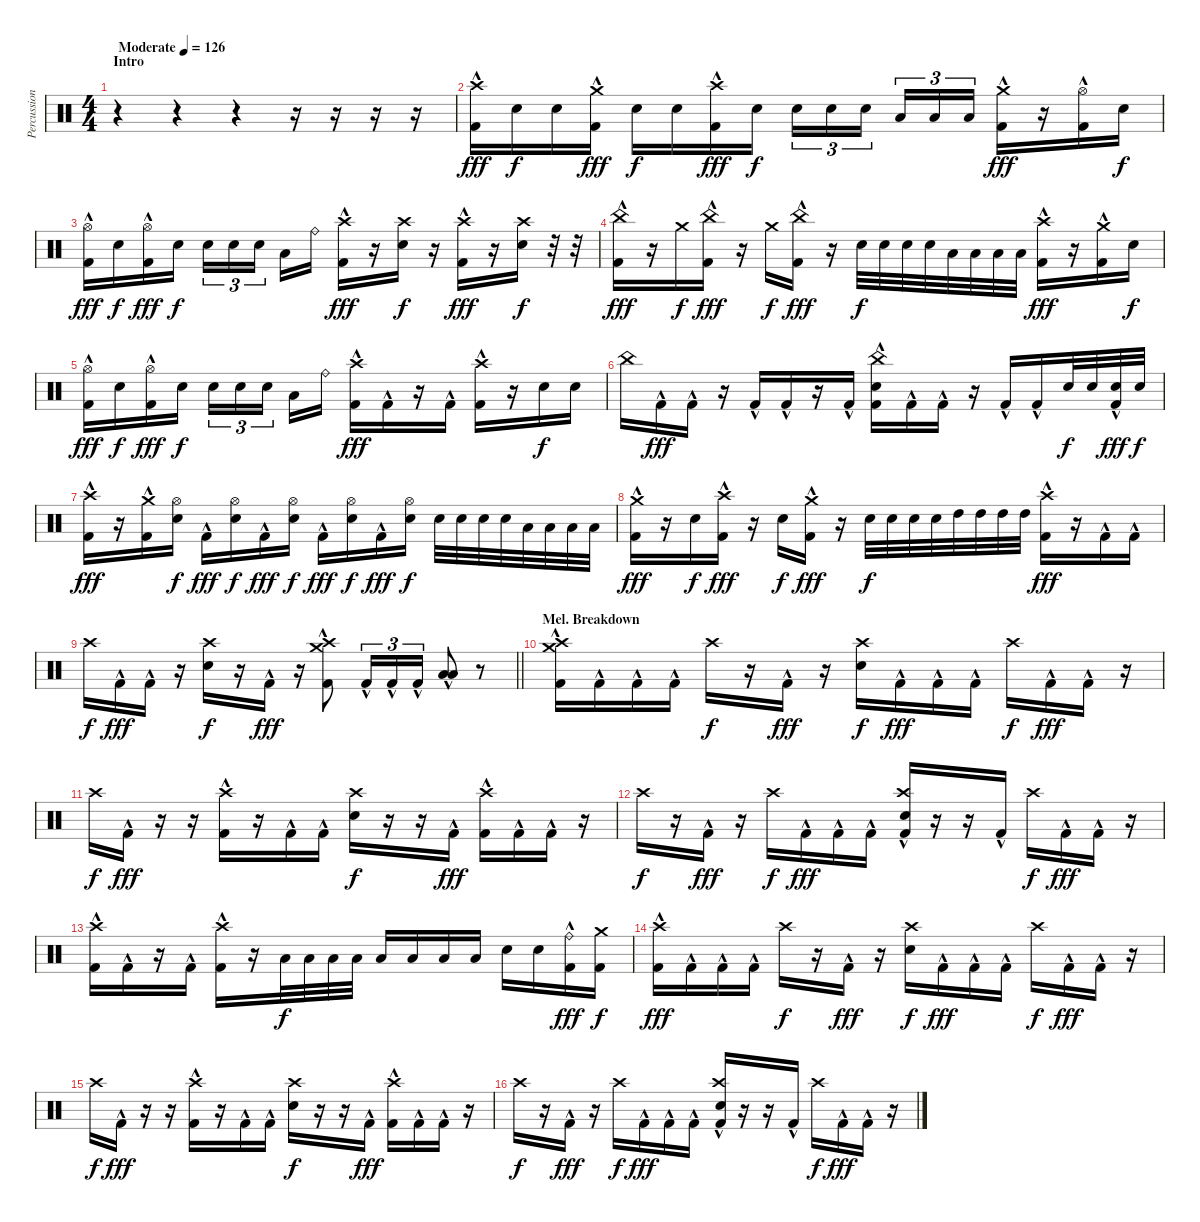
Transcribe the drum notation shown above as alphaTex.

\track ("Percussion" "Percussion") {instrument percussion}
\staff {score}
\articulation defaults
\ts (4 4)
\section ("" "Intro")
\tempo (126 "Moderate")
\clef neutral
\ks aminor
r.4{dy fff} r.4 r.4 r.16 r.16 r.16 r.16 |
("Kick (hit) 2"{hac} "Crash high (hit)").16 "Electric Snare (hit)".16{dy f} "Electric Snare (hit)".16 ("Kick (hit) 2"{hac} "Crash medium (hit)").16{dy fff} "Electric Snare (hit)".16{dy f} "Electric Snare (hit)".16 ("Kick (hit) 2"{hac} "Crash high (hit)").16{dy fff} "Electric Snare (hit)".16{dy f} "Electric Snare (hit)".16{tu (3 2)} "Electric Snare (hit)".16{tu (3 2)} "Electric Snare (hit)".16{tu (3 2) beam splitsecondary} "Low Tom (hit)".16{tu (3 2)} "Low Tom (hit)".16{tu (3 2)} "Low Tom (hit)".16{tu (3 2)} ("Crash medium (hit)" "Kick (hit) 2"{hac}).16{dy fff} r.16 ("Kick (hit) 2"{hac} "Hi-Hat (open)").16 "Electric Snare (hit)".16{dy f} |
("Kick (hit) 2"{hac} "Hi-Hat (open)").16{dy fff} "Electric Snare (hit)".16{dy f} ("Kick (hit) 2"{hac} "Hi-Hat (open)").16{dy fff} "Electric Snare (hit)".16{dy f} "Electric Snare (hit)".16{tu (3 2)} "Electric Snare (hit)".16{tu (3 2)} "Electric Snare (hit)".16{tu (3 2) beam splitsecondary} "Low Tom (hit)".16 "Ride (bell)".16 ("Kick (hit) 2"{hac} "Crash high (hit)").16{dy fff} r.16 ("Crash high (hit)" "Electric Snare (hit)").16{dy f} r.16 ("Kick (hit) 2"{hac} "Crash high (hit)").16{dy fff} r.16 ("Crash high (hit)" "Electric Snare (hit)").16{dy f} r.32 r.32 |
("Kick (hit) 2"{hac} "China (hit)").16{dy fff} r.16 "Crash medium (hit)".16{dy f} ("Kick (hit) 2"{hac} "China (hit)").16{dy fff} r.16 "Crash medium (hit)".16{dy f} ("Kick (hit) 2"{hac} "China (hit)").16{dy fff} r.16 "Electric Snare (hit)".32{dy f} "Electric Snare (hit)".32 "Electric Snare (hit)".32 "Electric Snare (hit)".32 "Low Tom (hit)".32 "Low Tom (hit)".32 "Low Tom (hit)".32 "Low Tom (hit)".32 ("Kick (hit) 2"{hac} "Crash high (hit)").16{dy fff} r.16 ("Kick (hit) 2"{hac} "Crash medium (hit)").16 "Electric Snare (hit)".16{dy f} |
("Kick (hit) 2"{hac} "Hi-Hat (open)").16{dy fff} "Electric Snare (hit)".16{dy f} ("Kick (hit) 2"{hac} "Hi-Hat (open)").16{dy fff} "Electric Snare (hit)".16{dy f} "Electric Snare (hit)".16{tu (3 2)} "Electric Snare (hit)".16{tu (3 2)} "Electric Snare (hit)".16{tu (3 2) beam splitsecondary} "Low Tom (hit)".16 "Ride (bell)".16 ("Kick (hit) 2"{hac} "Crash high (hit)").16{dy fff} "Kick (hit) 2"{hac}.16 r.16 "Kick (hit) 2"{hac}.16 ("Kick (hit) 2"{hac} "Crash high (hit)").16 r.16 "Electric Snare (hit)".16{dy f} "Electric Snare (hit)".16 |
"China (hit)".16 "Kick (hit) 2"{hac}.16{dy fff} "Kick (hit) 2"{hac}.16 r.16 "Kick (hit) 2"{hac}.16 "Kick (hit) 2"{hac}.16 r.16 "Kick (hit) 2"{hac}.16 ("Kick (hit) 2"{hac} "China (hit)" "Electric Snare (hit)").16 "Kick (hit) 2"{hac}.16 "Kick (hit) 2"{hac}.16 r.16 "Kick (hit) 2"{hac}.16 "Kick (hit) 2"{hac}.16 "Electric Snare (hit)".32{dy f} "Electric Snare (hit)".32 ("Kick (hit) 2"{hac} "Electric Snare (hit)").32{dy fff} "Electric Snare (hit)".32{dy f} |
("Kick (hit) 2"{hac} "Crash high (hit)").16{dy fff} r.16 ("Kick (hit) 2"{hac} "Crash medium (hit)").16 ("Electric Snare (hit)" "Hi-Hat (open)").16{dy f} "Kick (hit) 2"{hac}.16{dy fff} ("Electric Snare (hit)" "Hi-Hat (open)").16{dy f} "Kick (hit) 2"{hac}.16{dy fff} ("Electric Snare (hit)" "Hi-Hat (open)").16{dy f} "Kick (hit) 2"{hac}.16{dy fff} ("Electric Snare (hit)" "Hi-Hat (open)").16{dy f} "Kick (hit) 2"{hac}.16{dy fff} ("Electric Snare (hit)" "Hi-Hat (open)").16{dy f} "Electric Snare (hit)".32 "Electric Snare (hit)".32 "Electric Snare (hit)".32 "Electric Snare (hit)".32 "Low Tom (hit)".32 "Low Tom (hit)".32 "Low Tom (hit)".32 "Low Tom (hit)".32 |
("Kick (hit) 2"{hac} "Crash medium (hit)").16{dy fff} r.16 "Electric Snare (hit)".16{dy f} ("Kick (hit) 2"{hac} "Crash high (hit)").16{dy fff} r.16 "Electric Snare (hit)".16{dy f} ("Kick (hit) 2"{hac} "Crash medium (hit)").16{dy fff} r.16 "Electric Snare (hit)".32{dy f} "Electric Snare (hit)".32 "Electric Snare (hit)".32 "Electric Snare (hit)".32 "High Tom (hit)".32 "High Tom (hit)".32 "High Tom (hit)".32 "High Tom (hit)".32 ("Kick (hit) 2"{hac} "Crash high (hit)").16{dy fff} r.16 "Kick (hit) 2"{hac}.16 "Kick (hit) 2"{hac}.16 |
\barLineRight lightlight "Crash high (hit)".16{dy f} "Kick (hit) 2"{hac}.16{dy fff} "Kick (hit) 2"{hac}.16
r.16 ("Electric Snare (hit)" "Crash high (hit)").16{dy f} r.16 "Kick (hit) 2"{hac}.16{dy fff} r.16 ("Kick (hit) 2"{hac} "Crash high (hit)" "Crash medium (hit)").8 "Kick (hit) 2"{hac}.16{tu (3 2)} "Kick (hit) 2"{hac}.16{tu (3 2)} "Kick (hit) 2"{hac}.16{tu (3 2)} ("Low Tom (hit)" "Low Floor Tom (hit)"{hac}).8 r.8 |
\section ("" "Mel. Breakdown")
("Kick (hit) 2"{hac} "Crash high (hit)" "Crash medium (hit)").16 "Kick (hit) 2"{hac}.16 "Kick (hit) 2"{hac}.16 "Kick (hit) 2"{hac}.16 "Crash high (hit)".16{dy f} r.16 "Kick (hit) 2"{hac}.16{dy fff} r.16 ("Electric Snare (hit)" "Crash high (hit)").16{dy f} "Kick (hit) 2"{hac}.16{dy fff} "Kick (hit) 2"{hac}.16 "Kick (hit) 2"{hac}.16 "Crash high (hit)".16{dy f} "Kick (hit) 2"{hac}.16{dy fff} "Kick (hit) 2"{hac}.16 r.16 |
"Crash high (hit)".16{dy f} "Kick (hit) 2"{hac}.16{dy fff} r.16 r.16 ("Kick (hit) 2"{hac} "Crash high (hit)").16 r.16 "Kick (hit) 2"{hac}.16 "Kick (hit) 2"{hac}.16 ("Electric Snare (hit)" "Crash high (hit)").16{dy f} r.16 r.16 "Kick (hit) 2"{hac}.16{dy fff} ("Kick (hit) 2"{hac} "Crash high (hit)").16 "Kick (hit) 2"{hac}.16 "Kick (hit) 2"{hac}.16 r.16 |
"Crash high (hit)".16{dy f} r.16 "Kick (hit) 2"{hac}.16{dy fff} r.16 "Crash high (hit)".16{dy f} "Kick (hit) 2"{hac}.16{dy fff} "Kick (hit) 2"{hac}.16 "Kick (hit) 2"{hac}.16 ("Kick (hit) 2"{hac} "Electric Snare (hit)" "Crash high (hit)").16 r.16 r.16 "Kick (hit) 2"{hac}.16 "Crash high (hit)".16{dy f} "Kick (hit) 2"{hac}.16{dy fff} "Kick (hit) 2"{hac}.16 r.16 |
("Kick (hit) 2"{hac} "Crash high (hit)").16 "Kick (hit) 2"{hac}.16 r.16 "Kick (hit) 2"{hac}.16 ("Kick (hit) 2"{hac} "Crash high (hit)").16 r.16 "Low Tom (hit)".32{dy f} "Low Tom (hit)".32 "Low Tom (hit)".32 "Low Tom (hit)".32 "Low Tom (hit)".16 "Low Floor Tom (hit)".16 "Low Floor Tom (hit)".16 "Low Floor Tom (hit)".16 "Electric Snare (hit)".16 "Electric Snare (hit)".16 ("Kick (hit) 2" "Ride (bell)"{hac}).16{dy fff} ("Kick (hit) 2" "Crash medium (hit)").16{dy f} |
("Kick (hit) 2"{hac} "Crash high (hit)").16{dy fff} "Kick (hit) 2"{hac}.16 "Kick (hit) 2"{hac}.16 "Kick (hit) 2"{hac}.16 "Crash high (hit)".16{dy f} r.16 "Kick (hit) 2"{hac}.16{dy fff} r.16 ("Electric Snare (hit)" "Crash high (hit)").16{dy f} "Kick (hit) 2"{hac}.16{dy fff} "Kick (hit) 2"{hac}.16 "Kick (hit) 2"{hac}.16 "Crash high (hit)".16{dy f} "Kick (hit) 2"{hac}.16{dy fff} "Kick (hit) 2"{hac}.16 r.16 |
"Crash high (hit)".16{dy f} "Kick (hit) 2"{hac}.16{dy fff} r.16 r.16 ("Kick (hit) 2"{hac} "Crash high (hit)").16 r.16 "Kick (hit) 2"{hac}.16 "Kick (hit) 2"{hac}.16 ("Electric Snare (hit)" "Crash high (hit)").16{dy f} r.16 r.16 "Kick (hit) 2"{hac}.16{dy fff} ("Kick (hit) 2"{hac} "Crash high (hit)").16 "Kick (hit) 2"{hac}.16 "Kick (hit) 2"{hac}.16 r.16 |
"Crash high (hit)".16{dy f} r.16 "Kick (hit) 2"{hac}.16{dy fff} r.16 "Crash high (hit)".16{dy f} "Kick (hit) 2"{hac}.16{dy fff} "Kick (hit) 2"{hac}.16 "Kick (hit) 2"{hac}.16 ("Kick (hit) 2"{hac} "Electric Snare (hit)" "Crash high (hit)").16 r.16 r.16 "Kick (hit) 2"{hac}.16 "Crash high (hit)".16{dy f} "Kick (hit) 2"{hac}.16{dy fff} "Kick (hit) 2"{hac}.16 r.16
